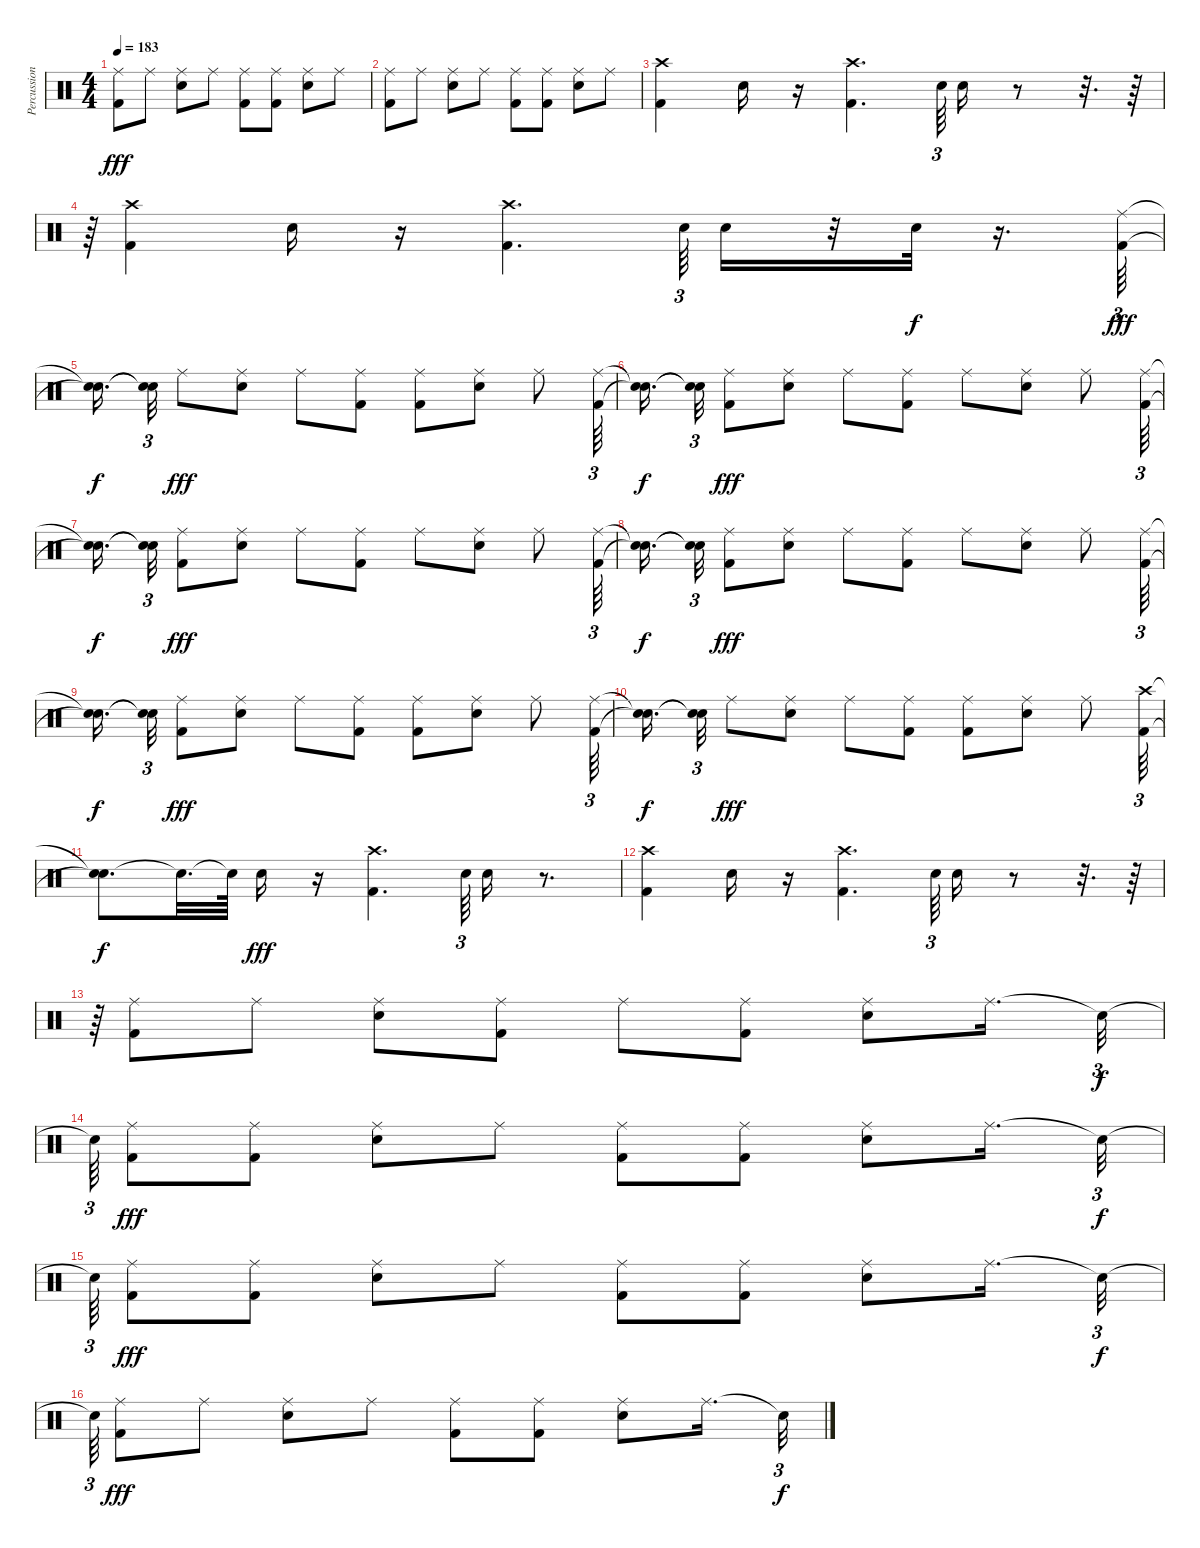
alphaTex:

\track ("Percussioni" "Percussion") {instrument percussion}
\staff {score}
\articulation defaults
\ts (4 4)
\tempo 183
\clef neutral
\ks c
("Ride (middle)" "Kick (hit) 2").8{dy fff} "Ride (middle)".8 ("Ride (middle)" "Snare (hit) 2").8 "Ride (middle)".8 ("Ride (middle)" "Kick (hit) 2").8 ("Ride (middle)" "Kick (hit) 2").8 ("Ride (middle)" "Snare (hit) 2").8 "Ride (middle)".8 |
("Ride (middle)" "Kick (hit) 2").8 "Ride (middle)".8 ("Ride (middle)" "Snare (hit) 2").8 "Ride (middle)".8 ("Ride (middle)" "Kick (hit) 2").8 ("Ride (middle)" "Kick (hit) 2").8 ("Ride (middle)" "Snare (hit) 2").8 "Ride (middle)".8 |
("Crash high (hit)" "Kick (hit) 2").4 "Snare (hit) 2".16 r.16 ("Crash high (hit)" "Kick (hit) 2").4{d} "Snare (hit) 2".64{tu (3 2)} "Snare (hit) 2".16 r.8 r.32{d} r.64 |
r.64{tu (3 2)} ("Crash high (hit)" "Kick (hit) 2").4 "Snare (hit) 2".16 r.16 ("Crash high (hit)" "Kick (hit) 2").4{d} "Snare (hit) 2".64{tu (3 2)} "Snare (hit) 2".16 r.32 "Snare (hit) 2".32{dy f} r.16{d} ("Ride (middle)" "Kick (hit) 2").64{tu (3 2) dy fff} |
("Snare (hit)"{t} "Snare (hit)"{t}).16{d dy f beam splitsecondary} ("Snare (hit)"{t} "Snare (hit)"{t}).32{tu (3 2)} "Ride (middle)".8{dy fff} ("Ride (middle)" "Snare (hit) 2").8 "Ride (middle)".8 ("Ride (middle)" "Kick (hit) 2").8 ("Ride (middle)" "Kick (hit) 2").8 ("Ride (middle)" "Snare (hit) 2").8 "Ride (middle)".8 ("Ride (middle)" "Kick (hit) 2").64{tu (3 2)} |
("Snare (hit)"{t} "Snare (hit)"{t}).16{d dy f beam splitsecondary} ("Snare (hit)"{t} "Snare (hit)"{t}).32{tu (3 2)} ("Ride (middle)" "Kick (hit) 2").8{dy fff} ("Ride (middle)" "Snare (hit) 2").8 "Ride (middle)".8 ("Ride (middle)" "Kick (hit) 2").8 "Ride (middle)".8 ("Ride (middle)" "Snare (hit) 2").8 "Ride (middle)".8 ("Ride (middle)" "Kick (hit) 2").64{tu (3 2)} |
("Snare (hit)"{t} "Snare (hit)"{t}).16{d dy f beam splitsecondary} ("Snare (hit)"{t} "Snare (hit)"{t}).32{tu (3 2)} ("Ride (middle)" "Kick (hit) 2").8{dy fff} ("Ride (middle)" "Snare (hit) 2").8 "Ride (middle)".8 ("Ride (middle)" "Kick (hit) 2").8 "Ride (middle)".8 ("Ride (middle)" "Snare (hit) 2").8 "Ride (middle)".8 ("Ride (middle)" "Kick (hit) 2").64{tu (3 2)} |
("Snare (hit)"{t} "Snare (hit)"{t}).16{d dy f beam splitsecondary} ("Snare (hit)"{t} "Snare (hit)"{t}).32{tu (3 2)} ("Ride (middle)" "Kick (hit) 2").8{dy fff} ("Ride (middle)" "Snare (hit) 2").8 "Ride (middle)".8 ("Ride (middle)" "Kick (hit) 2").8 "Ride (middle)".8 ("Ride (middle)" "Snare (hit) 2").8 "Ride (middle)".8 ("Ride (middle)" "Kick (hit) 2").64{tu (3 2)} |
("Snare (hit)"{t} "Snare (hit)"{t}).16{d dy f beam splitsecondary} ("Snare (hit)"{t} "Snare (hit)"{t}).32{tu (3 2)} ("Ride (middle)" "Kick (hit) 2").8{dy fff} ("Ride (middle)" "Snare (hit) 2").8 "Ride (middle)".8 ("Ride (middle)" "Kick (hit) 2").8 ("Ride (middle)" "Kick (hit) 2").8 ("Ride (middle)" "Snare (hit) 2").8 "Ride (middle)".8 ("Ride (middle)" "Kick (hit) 2").64{tu (3 2)} |
("Snare (hit)"{t} "Snare (hit)"{t}).16{d dy f beam splitsecondary} ("Snare (hit)"{t} "Snare (hit)"{t}).32{tu (3 2)} "Ride (middle)".8{dy fff} ("Ride (middle)" "Snare (hit) 2").8 "Ride (middle)".8 ("Ride (middle)" "Kick (hit) 2").8 ("Ride (middle)" "Kick (hit) 2").8 ("Ride (middle)" "Snare (hit) 2").8 "Ride (middle)".8 ("Crash high (hit)" "Kick (hit) 2").64{tu (3 2)} |
("Snare (hit)"{t} "Snare (hit)"{t}).8{d dy f} "Snare (hit)"{t}.32{d} "Snare (hit)"{t}.64 "Snare (hit) 2".16{dy fff} r.16 ("Crash high (hit)" "Kick (hit) 2").4{d} "Snare (hit) 2".64{tu (3 2)} "Snare (hit) 2".16 r.8{d} |
("Crash high (hit)" "Kick (hit) 2").4 "Snare (hit) 2".16 r.16 ("Crash high (hit)" "Kick (hit) 2").4{d} "Snare (hit) 2".64{tu (3 2)} "Snare (hit) 2".16 r.8 r.32{d} r.64 |
r.64{tu (3 2)} ("Ride (middle)" "Kick (hit) 2").8 "Ride (middle)".8 ("Ride (middle)" "Snare (hit) 2").8 ("Ride (middle)" "Kick (hit) 2").8 "Ride (middle)".8 ("Ride (middle)" "Kick (hit) 2").8 ("Ride (middle)" "Snare (hit) 2").8 "Ride (middle)".16{d} "Snare (hit)"{t}.32{tu (3 2) dy f} |
"Snare (hit)"{t}.64{tu (3 2)} ("Ride (middle)" "Kick (hit) 2").8{dy fff} ("Ride (middle)" "Kick (hit) 2").8 ("Ride (middle)" "Snare (hit) 2").8 "Ride (middle)".8 ("Ride (middle)" "Kick (hit) 2").8 ("Ride (middle)" "Kick (hit) 2").8 ("Ride (middle)" "Snare (hit) 2").8 "Ride (middle)".16{d} "Snare (hit)"{t}.32{tu (3 2) dy f} |
"Snare (hit)"{t}.64{tu (3 2)} ("Ride (middle)" "Kick (hit) 2").8{dy fff} ("Ride (middle)" "Kick (hit) 2").8 ("Ride (middle)" "Snare (hit) 2").8 "Ride (middle)".8 ("Ride (middle)" "Kick (hit) 2").8 ("Ride (middle)" "Kick (hit) 2").8 ("Ride (middle)" "Snare (hit) 2").8 "Ride (middle)".16{d} "Snare (hit)"{t}.32{tu (3 2) dy f} |
"Snare (hit)"{t}.64{tu (3 2)} ("Ride (middle)" "Kick (hit) 2").8{dy fff} "Ride (middle)".8 ("Ride (middle)" "Snare (hit) 2").8 "Ride (middle)".8 ("Ride (middle)" "Kick (hit) 2").8 ("Ride (middle)" "Kick (hit) 2").8 ("Ride (middle)" "Snare (hit) 2").8 "Ride (middle)".16{d} "Snare (hit)"{t}.32{tu (3 2) dy f}
